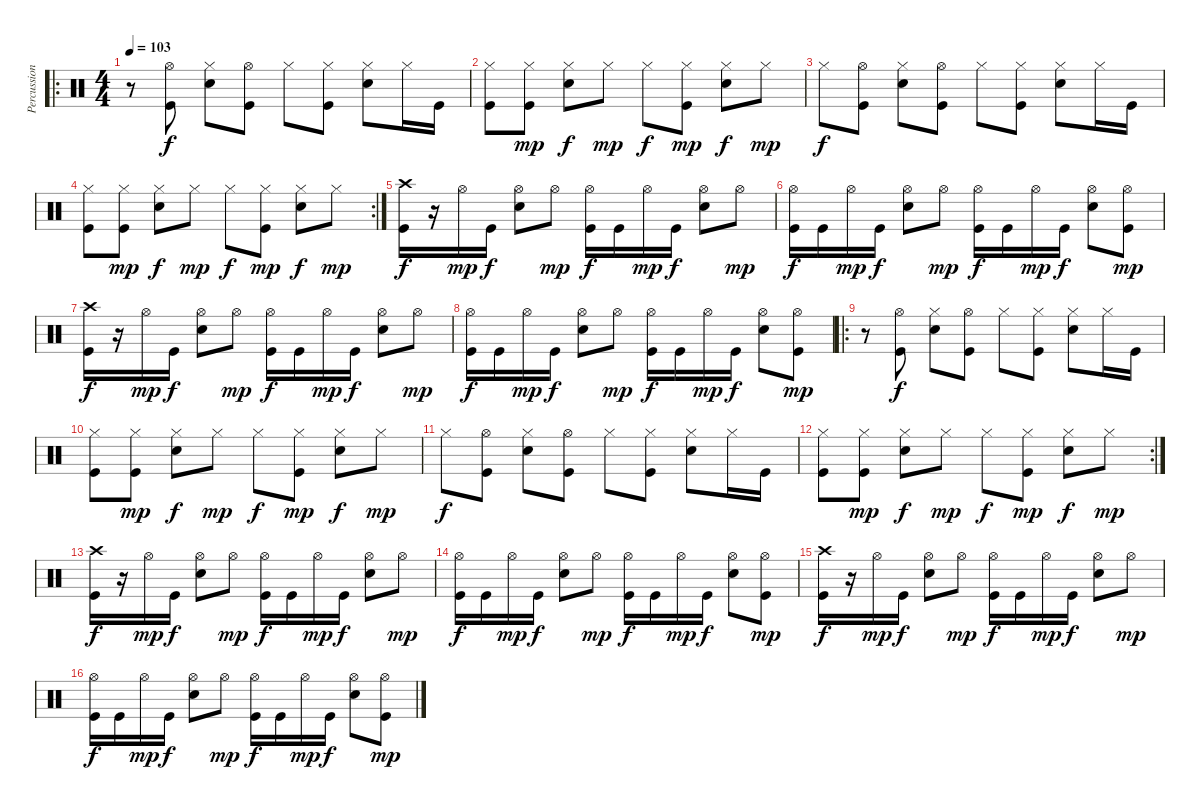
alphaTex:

\track ("Percussion" "Percussion") {instrument percussion}
\staff {score}
\articulation defaults
\ro
\ts (4 4)
\tempo 103
\clef neutral
\ks c
r.8{dy mp} ("Hi-Hat (open)" "Kick (hit)").8{dy f} ("Hi-Hat (closed)" "Electric Snare (hit)").8 ("Hi-Hat (open)" "Kick (hit)").8 "Hi-Hat (closed)".8 ("Hi-Hat (closed)" "Kick (hit)").8 ("Hi-Hat (closed)" "Electric Snare (hit)").8 "Hi-Hat (closed)".16 "Kick (hit)".16 |
("Hi-Hat (closed)" "Kick (hit)").8 ("Hi-Hat (closed)" "Kick (hit)").8{dy mp} ("Hi-Hat (closed)" "Electric Snare (hit)").8{dy f} "Hi-Hat (closed)".8{dy mp} "Hi-Hat (closed)".8{dy f} ("Hi-Hat (closed)" "Kick (hit)").8{dy mp} ("Hi-Hat (closed)" "Electric Snare (hit)").8{dy f} "Hi-Hat (closed)".8{dy mp} |
"Hi-Hat (closed)".8{dy f} ("Hi-Hat (open)" "Kick (hit)").8 ("Hi-Hat (closed)" "Electric Snare (hit)").8 ("Hi-Hat (open)" "Kick (hit)").8 "Hi-Hat (closed)".8 ("Hi-Hat (closed)" "Kick (hit)").8 ("Hi-Hat (closed)" "Electric Snare (hit)").8 "Hi-Hat (closed)".16 "Kick (hit)".16 |
\rc 2
("Hi-Hat (closed)" "Kick (hit)").8 ("Hi-Hat (closed)" "Kick (hit)").8{dy mp} ("Hi-Hat (closed)" "Electric Snare (hit)").8{dy f} "Hi-Hat (closed)".8{dy mp} "Hi-Hat (closed)".8{dy f} ("Hi-Hat (closed)" "Kick (hit)").8{dy mp} ("Hi-Hat (closed)" "Electric Snare (hit)").8{dy f} "Hi-Hat (closed)".8{dy mp} |
("Crash high (hit)" "Kick (hit)").16{dy f} r.16 "Hi-Hat (open)".16{dy mp} "Kick (hit)".16{dy f} ("Hi-Hat (open)" "Electric Snare (hit)").8 "Hi-Hat (open)".8{dy mp} ("Hi-Hat (open)" "Kick (hit)").16{dy f} "Kick (hit)".16 "Hi-Hat (open)".16{dy mp} "Kick (hit)".16{dy f} ("Hi-Hat (open)" "Electric Snare (hit)").8 "Hi-Hat (open)".8{dy mp} |
("Hi-Hat (open)" "Kick (hit)").16{dy f} "Kick (hit)".16 "Hi-Hat (open)".16{dy mp} "Kick (hit)".16{dy f} ("Hi-Hat (open)" "Electric Snare (hit)").8 "Hi-Hat (open)".8{dy mp} ("Hi-Hat (open)" "Kick (hit)").16{dy f} "Kick (hit)".16 "Hi-Hat (open)".16{dy mp} "Kick (hit)".16{dy f} ("Hi-Hat (open)" "Electric Snare (hit)").8 ("Hi-Hat (open)" "Kick (hit)").8{dy mp} |
("Crash high (hit)" "Kick (hit)").16{dy f} r.16 "Hi-Hat (open)".16{dy mp} "Kick (hit)".16{dy f} ("Hi-Hat (open)" "Electric Snare (hit)").8 "Hi-Hat (open)".8{dy mp} ("Hi-Hat (open)" "Kick (hit)").16{dy f} "Kick (hit)".16 "Hi-Hat (open)".16{dy mp} "Kick (hit)".16{dy f} ("Hi-Hat (open)" "Electric Snare (hit)").8 "Hi-Hat (open)".8{dy mp} |
("Hi-Hat (open)" "Kick (hit)").16{dy f} "Kick (hit)".16 "Hi-Hat (open)".16{dy mp} "Kick (hit)".16{dy f} ("Hi-Hat (open)" "Electric Snare (hit)").8 "Hi-Hat (open)".8{dy mp} ("Hi-Hat (open)" "Kick (hit)").16{dy f} "Kick (hit)".16 "Hi-Hat (open)".16{dy mp} "Kick (hit)".16{dy f} ("Hi-Hat (open)" "Electric Snare (hit)").8 ("Hi-Hat (open)" "Kick (hit)").8{dy mp} |
\ro
r.8 ("Hi-Hat (open)" "Kick (hit)").8{dy f} ("Hi-Hat (closed)" "Electric Snare (hit)").8 ("Hi-Hat (open)" "Kick (hit)").8 "Hi-Hat (closed)".8 ("Hi-Hat (closed)" "Kick (hit)").8 ("Hi-Hat (closed)" "Electric Snare (hit)").8 "Hi-Hat (closed)".16 "Kick (hit)".16 |
("Hi-Hat (closed)" "Kick (hit)").8 ("Hi-Hat (closed)" "Kick (hit)").8{dy mp} ("Hi-Hat (closed)" "Electric Snare (hit)").8{dy f} "Hi-Hat (closed)".8{dy mp} "Hi-Hat (closed)".8{dy f} ("Hi-Hat (closed)" "Kick (hit)").8{dy mp} ("Hi-Hat (closed)" "Electric Snare (hit)").8{dy f} "Hi-Hat (closed)".8{dy mp} |
"Hi-Hat (closed)".8{dy f} ("Hi-Hat (open)" "Kick (hit)").8 ("Hi-Hat (closed)" "Electric Snare (hit)").8 ("Hi-Hat (open)" "Kick (hit)").8 "Hi-Hat (closed)".8 ("Hi-Hat (closed)" "Kick (hit)").8 ("Hi-Hat (closed)" "Electric Snare (hit)").8 "Hi-Hat (closed)".16 "Kick (hit)".16 |
\rc 2
("Hi-Hat (closed)" "Kick (hit)").8 ("Hi-Hat (closed)" "Kick (hit)").8{dy mp} ("Hi-Hat (closed)" "Electric Snare (hit)").8{dy f} "Hi-Hat (closed)".8{dy mp} "Hi-Hat (closed)".8{dy f} ("Hi-Hat (closed)" "Kick (hit)").8{dy mp} ("Hi-Hat (closed)" "Electric Snare (hit)").8{dy f} "Hi-Hat (closed)".8{dy mp} |
("Crash high (hit)" "Kick (hit)").16{dy f} r.16 "Hi-Hat (open)".16{dy mp} "Kick (hit)".16{dy f} ("Hi-Hat (open)" "Electric Snare (hit)").8 "Hi-Hat (open)".8{dy mp} ("Hi-Hat (open)" "Kick (hit)").16{dy f} "Kick (hit)".16 "Hi-Hat (open)".16{dy mp} "Kick (hit)".16{dy f} ("Hi-Hat (open)" "Electric Snare (hit)").8 "Hi-Hat (open)".8{dy mp} |
("Hi-Hat (open)" "Kick (hit)").16{dy f} "Kick (hit)".16 "Hi-Hat (open)".16{dy mp} "Kick (hit)".16{dy f} ("Hi-Hat (open)" "Electric Snare (hit)").8 "Hi-Hat (open)".8{dy mp} ("Hi-Hat (open)" "Kick (hit)").16{dy f} "Kick (hit)".16 "Hi-Hat (open)".16{dy mp} "Kick (hit)".16{dy f} ("Hi-Hat (open)" "Electric Snare (hit)").8 ("Hi-Hat (open)" "Kick (hit)").8{dy mp} |
("Crash high (hit)" "Kick (hit)").16{dy f} r.16 "Hi-Hat (open)".16{dy mp} "Kick (hit)".16{dy f} ("Hi-Hat (open)" "Electric Snare (hit)").8 "Hi-Hat (open)".8{dy mp} ("Hi-Hat (open)" "Kick (hit)").16{dy f} "Kick (hit)".16 "Hi-Hat (open)".16{dy mp} "Kick (hit)".16{dy f} ("Hi-Hat (open)" "Electric Snare (hit)").8 "Hi-Hat (open)".8{dy mp} |
("Hi-Hat (open)" "Kick (hit)").16{dy f} "Kick (hit)".16 "Hi-Hat (open)".16{dy mp} "Kick (hit)".16{dy f} ("Hi-Hat (open)" "Electric Snare (hit)").8 "Hi-Hat (open)".8{dy mp} ("Hi-Hat (open)" "Kick (hit)").16{dy f} "Kick (hit)".16 "Hi-Hat (open)".16{dy mp} "Kick (hit)".16{dy f} ("Hi-Hat (open)" "Electric Snare (hit)").8 ("Hi-Hat (open)" "Kick (hit)").8{dy mp}
